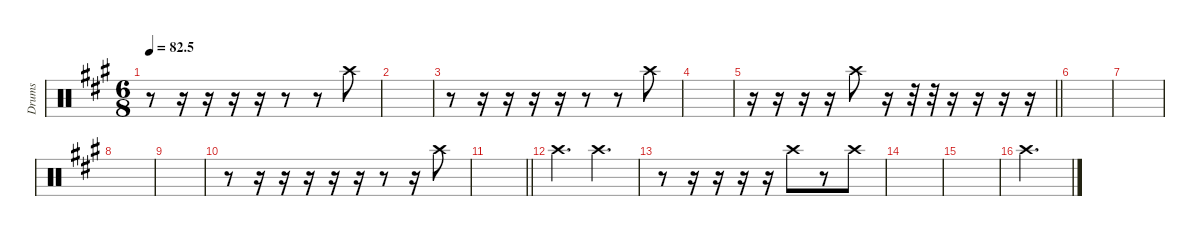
\defaultSystemsLayout 4
\hideDynamics
\bracketExtendMode nobrackets
\otherSystemsTrackNameOrientation horizontal
\track ("Left crash" "Drums") {instrument percussion}
\staff {score}
\articulation defaults
\ts (6 8)
\tempo
82.5
\accidentals auto
\clef neutral
\ottava regular
\simile none
\scale
0.333333
\ks a
r.8{dy f} r.16 r.16 r.16 r.16 r.8 r.8 "Crash high (hit)"{acc forcenatural}.8 |
\scale
0.333333 |
\scale
0.333333 r.8 r.16 r.16 r.16 r.16 r.8 r.8 "Crash high (hit)"{acc forcenatural}.8 |
\scale
0.333333 |
\scale
0.333333
\barLineRight lightlight
r.16 r.16 r.16 r.16 "Crash high (hit)"{acc forcenatural}.8 r.16 r.32 r.32 r.16 r.16 r.16 r.16 |
\scale
0.333333 |
\scale
0.333333 |
\scale
0.333333 |
\scale
0.333333 |
\scale
0.333333 r.8 r.16 r.16 r.16 r.16 r.16 r.8 r.16 "Crash high (hit)"{acc forcenatural}.8 |
\scale
0.333333
\barLineRight lightlight
|
\scale
0.333333 "Crash high (hit)"{acc forcenatural}.4{d} "Crash high (hit)"{acc forcenatural}.4{d} |
\scale
0.333333 r.8 r.16 r.16 r.16 r.16 "Crash high (hit)"{acc forcenatural}.8 r.8 "Crash high (hit)"{acc forcenatural}.8 |
\scale
0.333333 |
\scale
0.333333 |
\scale
0.333333 "Crash high (hit)"{acc forcenatural}.2{d}
